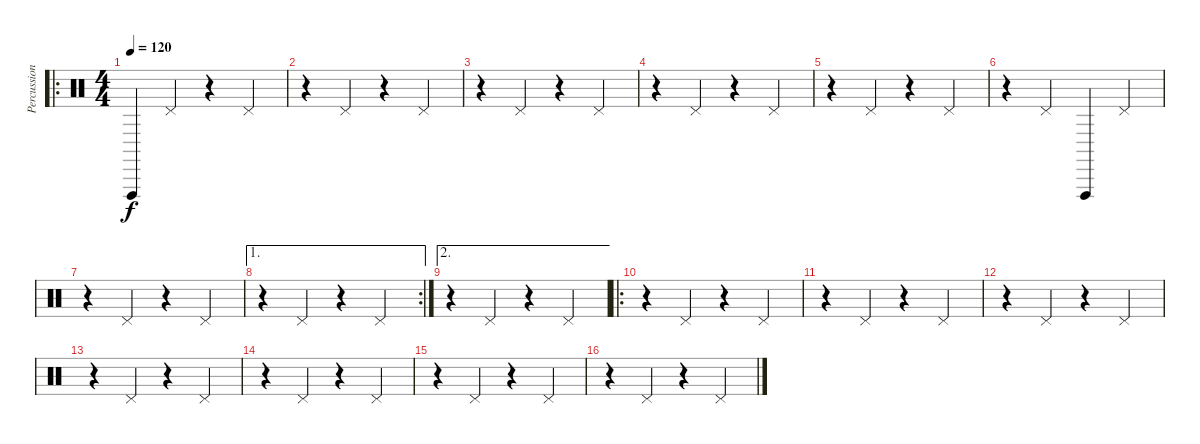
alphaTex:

\track ("Percussions" "Percussion") {instrument percussion}
\staff {score}
\articulation defaults
\ro
\ts (4 4)
\tempo 120
\clef neutral
\ks c "Vibraslap (hit)".4{dy f} "Pedal Hi-Hat (hit)".4
r.4 "Pedal Hi-Hat (hit)".4 |
r.4 "Pedal Hi-Hat (hit)".4 r.4 "Pedal Hi-Hat (hit)".4 |
r.4 "Pedal Hi-Hat (hit)".4 r.4 "Pedal Hi-Hat (hit)".4 |
r.4 "Pedal Hi-Hat (hit)".4 r.4 "Pedal Hi-Hat (hit)".4 |
r.4 "Pedal Hi-Hat (hit)".4 r.4 "Pedal Hi-Hat (hit)".4 |
r.4 "Pedal Hi-Hat (hit)".4 "Vibraslap (hit)".4 "Pedal Hi-Hat (hit)".4 |
r.4 "Pedal Hi-Hat (hit)".4 r.4 "Pedal Hi-Hat (hit)".4 |
\ae 1
\rc 2
r.4 "Pedal Hi-Hat (hit)".4 r.4 "Pedal Hi-Hat (hit)".4 |
\ae 2
r.4 "Pedal Hi-Hat (hit)".4 r.4 "Pedal Hi-Hat (hit)".4 |
\ro
r.4 "Pedal Hi-Hat (hit)".4 r.4 "Pedal Hi-Hat (hit)".4 |
r.4 "Pedal Hi-Hat (hit)".4 r.4 "Pedal Hi-Hat (hit)".4 |
r.4 "Pedal Hi-Hat (hit)".4 r.4 "Pedal Hi-Hat (hit)".4 |
r.4 "Pedal Hi-Hat (hit)".4 r.4 "Pedal Hi-Hat (hit)".4 |
r.4 "Pedal Hi-Hat (hit)".4 r.4 "Pedal Hi-Hat (hit)".4 |
r.4 "Pedal Hi-Hat (hit)".4 r.4 "Pedal Hi-Hat (hit)".4 |
r.4 "Pedal Hi-Hat (hit)".4 r.4 "Pedal Hi-Hat (hit)".4
